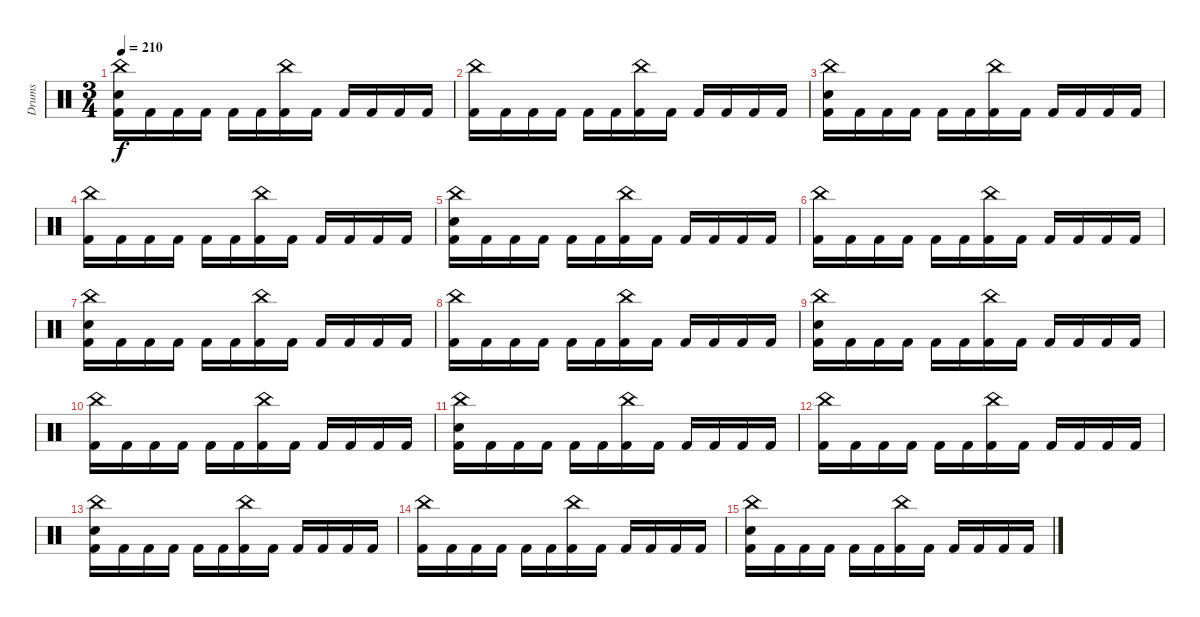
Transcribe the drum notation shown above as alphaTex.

\track ("Drums" "Drums") {instrument percussion}
\staff {score}
\articulation defaults
\ts (3 4)
\tempo 210
\clef neutral
\ks c
("China (hit)" "Electric Snare (hit)" "Kick (hit) 2").16{dy f} "Kick (hit) 2".16 "Kick (hit) 2".16 "Kick (hit) 2".16 "Kick (hit) 2".16 "Kick (hit) 2".16 ("China (hit)" "Kick (hit) 2").16{volume 3} "Kick (hit) 2".16 "Kick (hit) 2".16 "Kick (hit) 2".16 "Kick (hit) 2".16 "Kick (hit) 2".16 |
("China (hit)" "Kick (hit) 2").16 "Kick (hit) 2".16 "Kick (hit) 2".16 "Kick (hit) 2".16 "Kick (hit) 2".16 "Kick (hit) 2".16 ("China (hit)" "Kick (hit) 2").16 "Kick (hit) 2".16 "Kick (hit) 2".16 "Kick (hit) 2".16 "Kick (hit) 2".16 "Kick (hit) 2".16 |
("China (hit)" "Electric Snare (hit)" "Kick (hit) 2").16 "Kick (hit) 2".16 "Kick (hit) 2".16 "Kick (hit) 2".16 "Kick (hit) 2".16 "Kick (hit) 2".16 ("China (hit)" "Kick (hit) 2").16 "Kick (hit) 2".16 "Kick (hit) 2".16 "Kick (hit) 2".16 "Kick (hit) 2".16 "Kick (hit) 2".16 |
("China (hit)" "Kick (hit) 2").16 "Kick (hit) 2".16 "Kick (hit) 2".16 "Kick (hit) 2".16 "Kick (hit) 2".16 "Kick (hit) 2".16 ("China (hit)" "Kick (hit) 2").16 "Kick (hit) 2".16 "Kick (hit) 2".16 "Kick (hit) 2".16 "Kick (hit) 2".16 "Kick (hit) 2".16 |
("China (hit)" "Electric Snare (hit)" "Kick (hit) 2").16 "Kick (hit) 2".16 "Kick (hit) 2".16 "Kick (hit) 2".16 "Kick (hit) 2".16 "Kick (hit) 2".16 ("China (hit)" "Kick (hit) 2").16 "Kick (hit) 2".16 "Kick (hit) 2".16 "Kick (hit) 2".16 "Kick (hit) 2".16 "Kick (hit) 2".16 |
("China (hit)" "Kick (hit) 2").16 "Kick (hit) 2".16 "Kick (hit) 2".16 "Kick (hit) 2".16 "Kick (hit) 2".16 "Kick (hit) 2".16 ("China (hit)" "Kick (hit) 2").16 "Kick (hit) 2".16 "Kick (hit) 2".16 "Kick (hit) 2".16 "Kick (hit) 2".16 "Kick (hit) 2".16 |
("China (hit)" "Electric Snare (hit)" "Kick (hit) 2").16 "Kick (hit) 2".16 "Kick (hit) 2".16 "Kick (hit) 2".16 "Kick (hit) 2".16 "Kick (hit) 2".16 ("China (hit)" "Kick (hit) 2").16{volume 2} "Kick (hit) 2".16 "Kick (hit) 2".16 "Kick (hit) 2".16 "Kick (hit) 2".16 "Kick (hit) 2".16 |
("China (hit)" "Kick (hit) 2").16 "Kick (hit) 2".16 "Kick (hit) 2".16 "Kick (hit) 2".16 "Kick (hit) 2".16 "Kick (hit) 2".16 ("China (hit)" "Kick (hit) 2").16 "Kick (hit) 2".16 "Kick (hit) 2".16 "Kick (hit) 2".16 "Kick (hit) 2".16 "Kick (hit) 2".16 |
("China (hit)" "Electric Snare (hit)" "Kick (hit) 2").16 "Kick (hit) 2".16 "Kick (hit) 2".16 "Kick (hit) 2".16 "Kick (hit) 2".16 "Kick (hit) 2".16 ("China (hit)" "Kick (hit) 2").16 "Kick (hit) 2".16 "Kick (hit) 2".16 "Kick (hit) 2".16 "Kick (hit) 2".16 "Kick (hit) 2".16 |
("China (hit)" "Kick (hit) 2").16 "Kick (hit) 2".16 "Kick (hit) 2".16 "Kick (hit) 2".16 "Kick (hit) 2".16 "Kick (hit) 2".16 ("China (hit)" "Kick (hit) 2").16 "Kick (hit) 2".16 "Kick (hit) 2".16 "Kick (hit) 2".16 "Kick (hit) 2".16 "Kick (hit) 2".16 |
("China (hit)" "Electric Snare (hit)" "Kick (hit) 2").16 "Kick (hit) 2".16 "Kick (hit) 2".16 "Kick (hit) 2".16 "Kick (hit) 2".16 "Kick (hit) 2".16 ("China (hit)" "Kick (hit) 2").16 "Kick (hit) 2".16 "Kick (hit) 2".16 "Kick (hit) 2".16 "Kick (hit) 2".16 "Kick (hit) 2".16 |
("China (hit)" "Kick (hit) 2").16 "Kick (hit) 2".16 "Kick (hit) 2".16 "Kick (hit) 2".16 "Kick (hit) 2".16 "Kick (hit) 2".16 ("China (hit)" "Kick (hit) 2").16 "Kick (hit) 2".16 "Kick (hit) 2".16 "Kick (hit) 2".16 "Kick (hit) 2".16 "Kick (hit) 2".16 |
("China (hit)" "Electric Snare (hit)" "Kick (hit) 2").16 "Kick (hit) 2".16 "Kick (hit) 2".16 "Kick (hit) 2".16 "Kick (hit) 2".16 "Kick (hit) 2".16 ("China (hit)" "Kick (hit) 2").16{volume 0} "Kick (hit) 2".16 "Kick (hit) 2".16 "Kick (hit) 2".16 "Kick (hit) 2".16 "Kick (hit) 2".16 |
("China (hit)" "Kick (hit) 2").16 "Kick (hit) 2".16 "Kick (hit) 2".16 "Kick (hit) 2".16 "Kick (hit) 2".16 "Kick (hit) 2".16 ("China (hit)" "Kick (hit) 2").16 "Kick (hit) 2".16 "Kick (hit) 2".16 "Kick (hit) 2".16 "Kick (hit) 2".16 "Kick (hit) 2".16 |
("China (hit)" "Electric Snare (hit)" "Kick (hit) 2").16 "Kick (hit) 2".16 "Kick (hit) 2".16 "Kick (hit) 2".16 "Kick (hit) 2".16 "Kick (hit) 2".16 ("China (hit)" "Kick (hit) 2").16 "Kick (hit) 2".16 "Kick (hit) 2".16 "Kick (hit) 2".16 "Kick (hit) 2".16 "Kick (hit) 2".16
